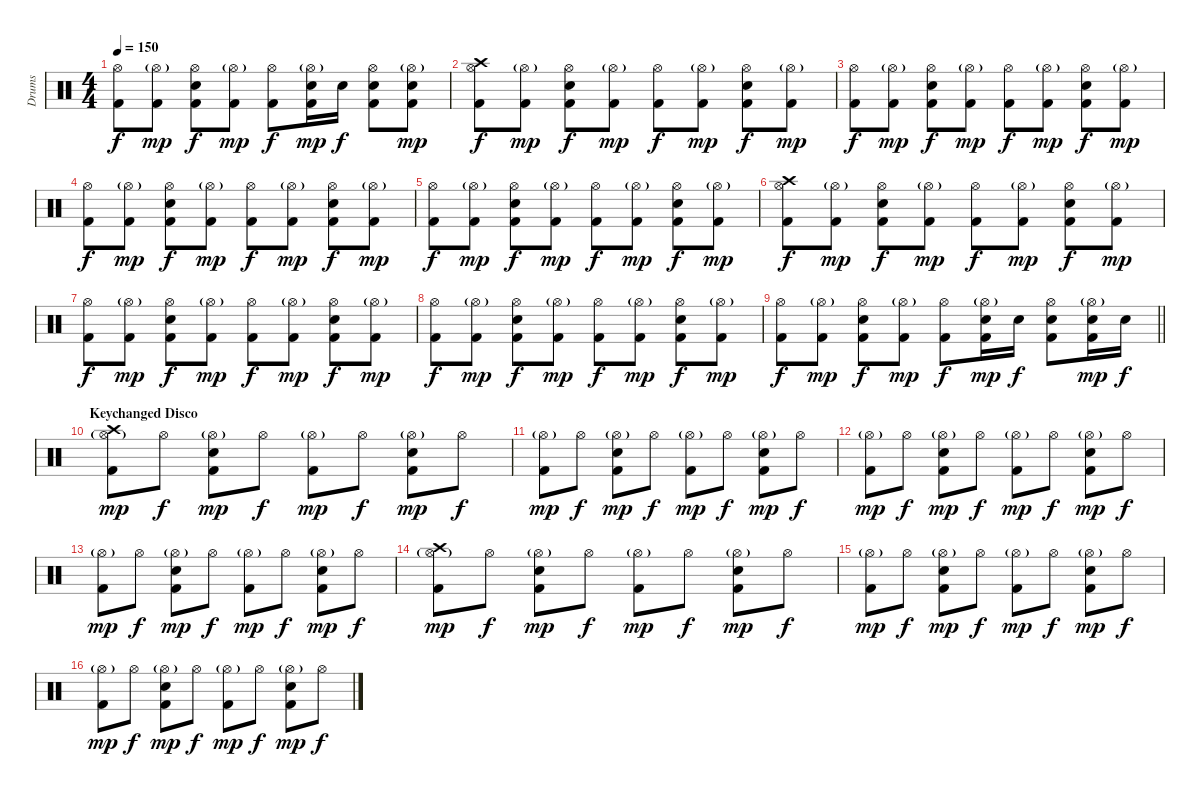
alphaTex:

\track ("Drums" "Drums") {instrument percussion}
\staff {score}
\articulation defaults
\ts (4 4)
\tempo 150
\clef neutral
\ks c
("Hi-Hat (open)" "Kick (hit) 2").8{dy f} ("Hi-Hat (open)"{g} "Kick (hit) 2").8{dy mp} ("Hi-Hat (open)" "Snare (hit) 2" "Kick (hit) 2").8{dy f} ("Hi-Hat (open)"{g} "Kick (hit) 2").8{dy mp} ("Hi-Hat (open)" "Kick (hit) 2").8{dy f} ("Hi-Hat (open)"{g} "Snare (hit) 2" "Kick (hit) 2").16{dy mp} "Snare (hit) 2".16{dy f} ("Hi-Hat (open)" "Snare (hit) 2" "Kick (hit) 2").8 ("Hi-Hat (open)"{g} "Snare (hit) 2" "Kick (hit) 2").8{dy mp} |
("Crash high (hit)" "Hi-Hat (open)" "Kick (hit) 2").8{dy f} ("Hi-Hat (open)"{g} "Kick (hit) 2").8{dy mp} ("Hi-Hat (open)" "Snare (hit) 2" "Kick (hit) 2").8{dy f} ("Hi-Hat (open)"{g} "Kick (hit) 2").8{dy mp} ("Hi-Hat (open)" "Kick (hit) 2").8{dy f} ("Hi-Hat (open)"{g} "Kick (hit) 2").8{dy mp} ("Hi-Hat (open)" "Snare (hit) 2" "Kick (hit) 2").8{dy f} ("Hi-Hat (open)"{g} "Kick (hit) 2").8{dy mp} |
("Hi-Hat (open)" "Kick (hit) 2").8{dy f} ("Hi-Hat (open)"{g} "Kick (hit) 2").8{dy mp} ("Hi-Hat (open)" "Snare (hit) 2" "Kick (hit) 2").8{dy f} ("Hi-Hat (open)"{g} "Kick (hit) 2").8{dy mp} ("Hi-Hat (open)" "Kick (hit) 2").8{dy f} ("Hi-Hat (open)"{g} "Kick (hit) 2").8{dy mp} ("Hi-Hat (open)" "Snare (hit) 2" "Kick (hit) 2").8{dy f} ("Hi-Hat (open)"{g} "Kick (hit) 2").8{dy mp} |
("Hi-Hat (open)" "Kick (hit) 2").8{dy f} ("Hi-Hat (open)"{g} "Kick (hit) 2").8{dy mp} ("Hi-Hat (open)" "Snare (hit) 2" "Kick (hit) 2").8{dy f} ("Hi-Hat (open)"{g} "Kick (hit) 2").8{dy mp} ("Hi-Hat (open)" "Kick (hit) 2").8{dy f} ("Hi-Hat (open)"{g} "Kick (hit) 2").8{dy mp} ("Hi-Hat (open)" "Snare (hit) 2" "Kick (hit) 2").8{dy f} ("Hi-Hat (open)"{g} "Kick (hit) 2").8{dy mp} |
("Hi-Hat (open)" "Kick (hit) 2").8{dy f} ("Hi-Hat (open)"{g} "Kick (hit) 2").8{dy mp} ("Hi-Hat (open)" "Snare (hit) 2" "Kick (hit) 2").8{dy f} ("Hi-Hat (open)"{g} "Kick (hit) 2").8{dy mp} ("Hi-Hat (open)" "Kick (hit) 2").8{dy f} ("Hi-Hat (open)"{g} "Kick (hit) 2").8{dy mp} ("Hi-Hat (open)" "Snare (hit) 2" "Kick (hit) 2").8{dy f} ("Hi-Hat (open)"{g} "Kick (hit) 2").8{dy mp} |
("Crash high (hit)" "Hi-Hat (open)" "Kick (hit) 2").8{dy f} ("Hi-Hat (open)"{g} "Kick (hit) 2").8{dy mp} ("Hi-Hat (open)" "Snare (hit) 2" "Kick (hit) 2").8{dy f} ("Hi-Hat (open)"{g} "Kick (hit) 2").8{dy mp} ("Hi-Hat (open)" "Kick (hit) 2").8{dy f} ("Hi-Hat (open)"{g} "Kick (hit) 2").8{dy mp} ("Hi-Hat (open)" "Snare (hit) 2" "Kick (hit) 2").8{dy f} ("Hi-Hat (open)"{g} "Kick (hit) 2").8{dy mp} |
("Hi-Hat (open)" "Kick (hit) 2").8{dy f} ("Hi-Hat (open)"{g} "Kick (hit) 2").8{dy mp} ("Hi-Hat (open)" "Snare (hit) 2" "Kick (hit) 2").8{dy f} ("Hi-Hat (open)"{g} "Kick (hit) 2").8{dy mp} ("Hi-Hat (open)" "Kick (hit) 2").8{dy f} ("Hi-Hat (open)"{g} "Kick (hit) 2").8{dy mp} ("Hi-Hat (open)" "Snare (hit) 2" "Kick (hit) 2").8{dy f} ("Hi-Hat (open)"{g} "Kick (hit) 2").8{dy mp} |
("Hi-Hat (open)" "Kick (hit) 2").8{dy f} ("Hi-Hat (open)"{g} "Kick (hit) 2").8{dy mp} ("Hi-Hat (open)" "Snare (hit) 2" "Kick (hit) 2").8{dy f} ("Hi-Hat (open)"{g} "Kick (hit) 2").8{dy mp} ("Hi-Hat (open)" "Kick (hit) 2").8{dy f} ("Hi-Hat (open)"{g} "Kick (hit) 2").8{dy mp} ("Hi-Hat (open)" "Snare (hit) 2" "Kick (hit) 2").8{dy f} ("Hi-Hat (open)"{g} "Kick (hit) 2").8{dy mp} |
\barLineRight lightlight
("Hi-Hat (open)" "Kick (hit) 2").8{dy f} ("Hi-Hat (open)"{g} "Kick (hit) 2").8{dy mp} ("Hi-Hat (open)" "Snare (hit) 2" "Kick (hit) 2").8{dy f} ("Hi-Hat (open)"{g} "Kick (hit) 2").8{dy mp} ("Hi-Hat (open)" "Kick (hit) 2").8{dy f} ("Hi-Hat (open)"{g} "Snare (hit) 2" "Kick (hit) 2").16{dy mp} "Snare (hit) 2".16{dy f} ("Hi-Hat (open)" "Snare (hit) 2" "Kick (hit) 2").8 ("Hi-Hat (open)"{g} "Snare (hit) 2" "Kick (hit) 2").16{dy mp} "Snare (hit) 2".16{dy f} |
\section ("" "Keychanged Disco")
("Crash high (hit)" "Hi-Hat (open)"{g} "Kick (hit) 2").8{dy mp} "Hi-Hat (open)".8{dy f} ("Hi-Hat (open)"{g} "Snare (hit) 2" "Kick (hit) 2").8{dy mp} "Hi-Hat (open)".8{dy f} ("Hi-Hat (open)"{g} "Kick (hit) 2").8{dy mp} "Hi-Hat (open)".8{dy f} ("Hi-Hat (open)"{g} "Snare (hit) 2" "Kick (hit) 2").8{dy mp} "Hi-Hat (open)".8{dy f} |
("Hi-Hat (open)"{g} "Kick (hit) 2").8{dy mp} "Hi-Hat (open)".8{dy f} ("Hi-Hat (open)"{g} "Snare (hit) 2" "Kick (hit) 2").8{dy mp} "Hi-Hat (open)".8{dy f} ("Hi-Hat (open)"{g} "Kick (hit) 2").8{dy mp} "Hi-Hat (open)".8{dy f} ("Hi-Hat (open)"{g} "Snare (hit) 2" "Kick (hit) 2").8{dy mp} "Hi-Hat (open)".8{dy f} |
("Hi-Hat (open)"{g} "Kick (hit) 2").8{dy mp} "Hi-Hat (open)".8{dy f} ("Hi-Hat (open)"{g} "Snare (hit) 2" "Kick (hit) 2").8{dy mp} "Hi-Hat (open)".8{dy f} ("Hi-Hat (open)"{g} "Kick (hit) 2").8{dy mp} "Hi-Hat (open)".8{dy f} ("Hi-Hat (open)"{g} "Snare (hit) 2" "Kick (hit) 2").8{dy mp} "Hi-Hat (open)".8{dy f} |
("Hi-Hat (open)"{g} "Kick (hit) 2").8{dy mp} "Hi-Hat (open)".8{dy f} ("Hi-Hat (open)"{g} "Snare (hit) 2" "Kick (hit) 2").8{dy mp} "Hi-Hat (open)".8{dy f} ("Hi-Hat (open)"{g} "Kick (hit) 2").8{dy mp} "Hi-Hat (open)".8{dy f} ("Hi-Hat (open)"{g} "Snare (hit) 2" "Kick (hit) 2").8{dy mp} "Hi-Hat (open)".8{dy f} |
("Crash high (hit)" "Hi-Hat (open)"{g} "Kick (hit) 2").8{dy mp} "Hi-Hat (open)".8{dy f} ("Hi-Hat (open)"{g} "Snare (hit) 2" "Kick (hit) 2").8{dy mp} "Hi-Hat (open)".8{dy f} ("Hi-Hat (open)"{g} "Kick (hit) 2").8{dy mp} "Hi-Hat (open)".8{dy f} ("Hi-Hat (open)"{g} "Snare (hit) 2" "Kick (hit) 2").8{dy mp} "Hi-Hat (open)".8{dy f} |
("Hi-Hat (open)"{g} "Kick (hit) 2").8{dy mp} "Hi-Hat (open)".8{dy f} ("Hi-Hat (open)"{g} "Snare (hit) 2" "Kick (hit) 2").8{dy mp} "Hi-Hat (open)".8{dy f} ("Hi-Hat (open)"{g} "Kick (hit) 2").8{dy mp} "Hi-Hat (open)".8{dy f} ("Hi-Hat (open)"{g} "Snare (hit) 2" "Kick (hit) 2").8{dy mp} "Hi-Hat (open)".8{dy f} |
("Hi-Hat (open)"{g} "Kick (hit) 2").8{dy mp} "Hi-Hat (open)".8{dy f} ("Hi-Hat (open)"{g} "Snare (hit) 2" "Kick (hit) 2").8{dy mp} "Hi-Hat (open)".8{dy f} ("Hi-Hat (open)"{g} "Kick (hit) 2").8{dy mp} "Hi-Hat (open)".8{dy f} ("Hi-Hat (open)"{g} "Snare (hit) 2" "Kick (hit) 2").8{dy mp} "Hi-Hat (open)".8{dy f}
